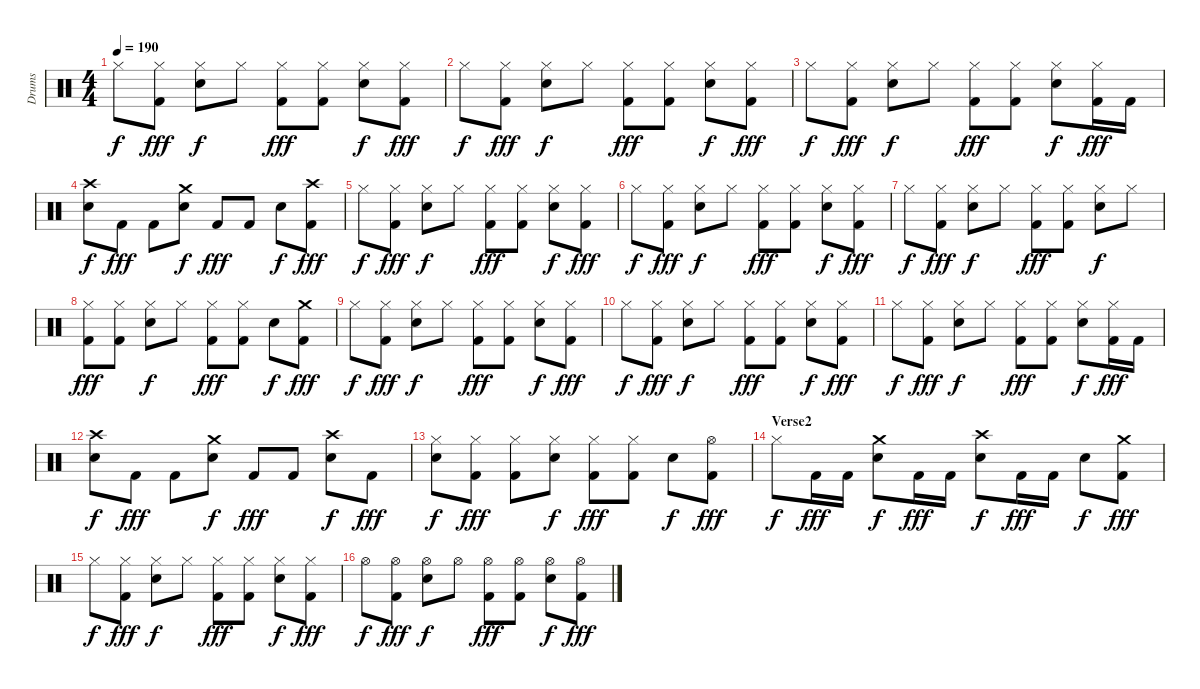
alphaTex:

\track ("Drums" "Drums") {instrument percussion}
\staff {score}
\articulation defaults
\ts (4 4)
\tempo 190
\clef neutral
\ks c "Hi-Hat (closed)".8{dy f}
("Hi-Hat (closed)" "Kick (hit) 2").8{dy fff} ("Hi-Hat (closed)" "Electric Snare (hit)").8{dy f} "Hi-Hat (closed)".8 ("Hi-Hat (closed)" "Kick (hit) 2").8{dy fff} ("Hi-Hat (closed)" "Kick (hit) 2").8 ("Hi-Hat (closed)" "Electric Snare (hit)").8{dy f} ("Hi-Hat (closed)" "Kick (hit) 2").8{dy fff} |
"Hi-Hat (closed)".8{dy f} ("Hi-Hat (closed)" "Kick (hit) 2").8{dy fff} ("Hi-Hat (closed)" "Electric Snare (hit)").8{dy f} "Hi-Hat (closed)".8 ("Hi-Hat (closed)" "Kick (hit) 2").8{dy fff} ("Hi-Hat (closed)" "Kick (hit) 2").8 ("Hi-Hat (closed)" "Electric Snare (hit)").8{dy f} ("Hi-Hat (closed)" "Kick (hit) 2").8{dy fff} |
"Hi-Hat (closed)".8{dy f} ("Hi-Hat (closed)" "Kick (hit) 2").8{dy fff} ("Hi-Hat (closed)" "Electric Snare (hit)").8{dy f} "Hi-Hat (closed)".8 ("Hi-Hat (closed)" "Kick (hit) 2").8{dy fff} ("Hi-Hat (closed)" "Kick (hit) 2").8 ("Hi-Hat (closed)" "Electric Snare (hit)").8{dy f} ("Hi-Hat (closed)" "Kick (hit) 2").16{dy fff} "Kick (hit) 2".16 |
("Crash high (hit)" "Electric Snare (hit)").8{dy f} "Kick (hit) 2".8{dy fff} "Kick (hit) 2".8 ("Crash medium (hit)" "Electric Snare (hit)").8{dy f} "Kick (hit) 2".8{dy fff} "Kick (hit) 2".8 "Electric Snare (hit)".8{dy f} ("Crash high (hit)" "Kick (hit) 2").8{dy fff} |
"Hi-Hat (closed)".8{dy f} ("Hi-Hat (closed)" "Kick (hit) 2").8{dy fff} ("Hi-Hat (closed)" "Electric Snare (hit)").8{dy f} "Hi-Hat (closed)".8 ("Hi-Hat (closed)" "Kick (hit) 2").8{dy fff} ("Hi-Hat (closed)" "Kick (hit) 2").8 ("Hi-Hat (closed)" "Electric Snare (hit)").8{dy f} ("Hi-Hat (closed)" "Kick (hit) 2").8{dy fff} |
"Hi-Hat (closed)".8{dy f} ("Hi-Hat (closed)" "Kick (hit) 2").8{dy fff} ("Hi-Hat (closed)" "Electric Snare (hit)").8{dy f} "Hi-Hat (closed)".8 ("Hi-Hat (closed)" "Kick (hit) 2").8{dy fff} ("Hi-Hat (closed)" "Kick (hit) 2").8 ("Hi-Hat (closed)" "Electric Snare (hit)").8{dy f} ("Hi-Hat (closed)" "Kick (hit) 2").8{dy fff} |
"Hi-Hat (closed)".8{dy f} ("Hi-Hat (closed)" "Kick (hit) 2").8{dy fff} ("Hi-Hat (closed)" "Electric Snare (hit)").8{dy f} "Hi-Hat (closed)".8 ("Hi-Hat (closed)" "Kick (hit) 2").8{dy fff} ("Hi-Hat (closed)" "Kick (hit) 2").8 ("Hi-Hat (closed)" "Electric Snare (hit)").8{dy f} "Hi-Hat (closed)".8 |
("Hi-Hat (closed)" "Kick (hit) 2").8{dy fff} ("Hi-Hat (closed)" "Kick (hit) 2").8 ("Hi-Hat (closed)" "Electric Snare (hit)").8{dy f} "Hi-Hat (closed)".8 ("Hi-Hat (closed)" "Kick (hit) 2").8{dy fff} ("Hi-Hat (closed)" "Kick (hit) 2").8 "Electric Snare (hit)".8{dy f} ("Crash medium (hit)" "Kick (hit) 2").8{dy fff} |
"Hi-Hat (closed)".8{dy f} ("Hi-Hat (closed)" "Kick (hit) 2").8{dy fff} ("Hi-Hat (closed)" "Electric Snare (hit)").8{dy f} "Hi-Hat (closed)".8 ("Hi-Hat (closed)" "Kick (hit) 2").8{dy fff} ("Hi-Hat (closed)" "Kick (hit) 2").8 ("Hi-Hat (closed)" "Electric Snare (hit)").8{dy f} ("Hi-Hat (closed)" "Kick (hit) 2").8{dy fff} |
"Hi-Hat (closed)".8{dy f} ("Hi-Hat (closed)" "Kick (hit) 2").8{dy fff} ("Hi-Hat (closed)" "Electric Snare (hit)").8{dy f} "Hi-Hat (closed)".8 ("Hi-Hat (closed)" "Kick (hit) 2").8{dy fff} ("Hi-Hat (closed)" "Kick (hit) 2").8 ("Hi-Hat (closed)" "Electric Snare (hit)").8{dy f} ("Hi-Hat (closed)" "Kick (hit) 2").8{dy fff} |
"Hi-Hat (closed)".8{dy f} ("Hi-Hat (closed)" "Kick (hit) 2").8{dy fff} ("Hi-Hat (closed)" "Electric Snare (hit)").8{dy f} "Hi-Hat (closed)".8 ("Hi-Hat (closed)" "Kick (hit) 2").8{dy fff} ("Hi-Hat (closed)" "Kick (hit) 2").8 ("Hi-Hat (closed)" "Electric Snare (hit)").8{dy f} ("Hi-Hat (closed)" "Kick (hit) 2").16{dy fff} "Kick (hit) 2".16 |
("Crash high (hit)" "Electric Snare (hit)").8{dy f} "Kick (hit) 2".8{dy fff} "Kick (hit) 2".8 ("Crash medium (hit)" "Electric Snare (hit)").8{dy f} "Kick (hit) 2".8{dy fff} "Kick (hit) 2".8 ("Crash high (hit)" "Electric Snare (hit)").8{dy f} "Kick (hit) 2".8{dy fff} |
("Hi-Hat (closed)" "Electric Snare (hit)").8{dy f} ("Hi-Hat (closed)" "Kick (hit) 2").8{dy fff} ("Hi-Hat (closed)" "Kick (hit) 2").8 ("Hi-Hat (closed)" "Electric Snare (hit)").8{dy f} ("Hi-Hat (closed)" "Kick (hit) 2").8{dy fff} ("Hi-Hat (closed)" "Kick (hit) 2").8 "Electric Snare (hit)".8{dy f} ("Hi-Hat (open)" "Kick (hit) 2").8{dy fff} |
\section ("" "Verse2")
"Hi-Hat (closed)".8{dy f} "Kick (hit) 2".16{dy fff} "Kick (hit) 2".16 ("Crash medium (hit)" "Electric Snare (hit)").8{dy f} "Kick (hit) 2".16{dy fff} "Kick (hit) 2".16 ("Crash high (hit)" "Electric Snare (hit)").8{dy f} "Kick (hit) 2".16{dy fff} "Kick (hit) 2".16 "Electric Snare (hit)".8{dy f} ("Crash medium (hit)" "Kick (hit) 2").8{dy fff} |
"Hi-Hat (closed)".8{dy f} ("Hi-Hat (closed)" "Kick (hit) 2").8{dy fff} ("Hi-Hat (closed)" "Electric Snare (hit)").8{dy f} "Hi-Hat (closed)".8 ("Hi-Hat (closed)" "Kick (hit) 2").8{dy fff} ("Hi-Hat (closed)" "Kick (hit) 2").8 ("Hi-Hat (closed)" "Electric Snare (hit)").8{dy f} ("Hi-Hat (closed)" "Kick (hit) 2").8{dy fff} |
"Hi-Hat (open)".8{dy f} ("Hi-Hat (open)" "Kick (hit) 2").8{dy fff} ("Hi-Hat (open)" "Electric Snare (hit)").8{dy f} "Hi-Hat (open)".8 ("Hi-Hat (open)" "Kick (hit) 2").8{dy fff} ("Hi-Hat (open)" "Kick (hit) 2").8 ("Hi-Hat (open)" "Electric Snare (hit)").8{dy f} ("Hi-Hat (open)" "Kick (hit) 2").8{dy fff}
